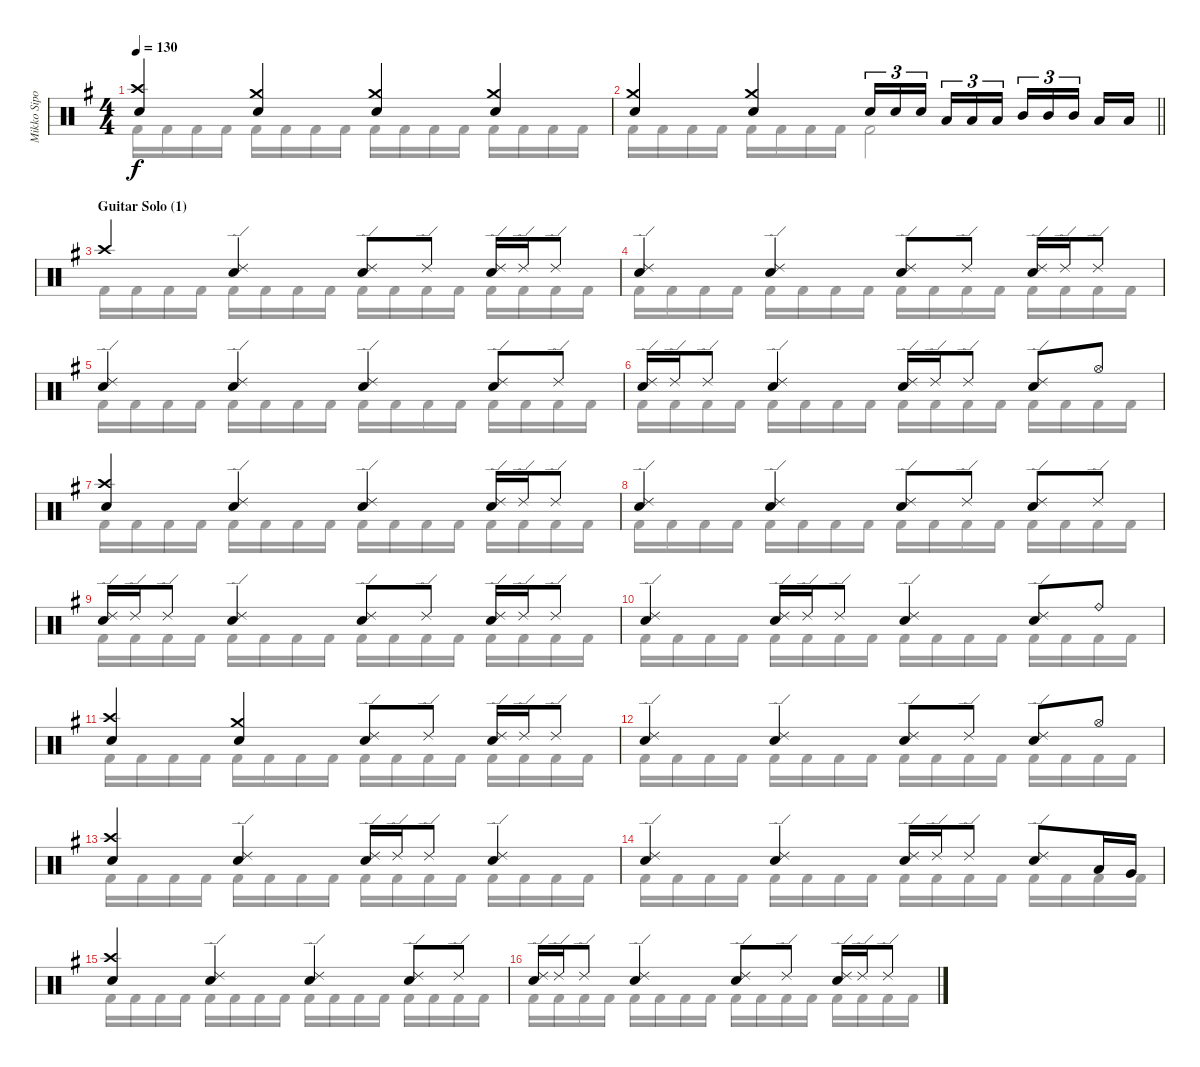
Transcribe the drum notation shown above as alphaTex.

\track ("Mikko Sipola (drums)" "Mikko Sipo") {instrument percussion}
\staff {score}
\articulation defaults
\voice
\ts (4 4)
\tempo 130
\clef neutral
\ks eminor
("Crash high (hit)" "Electric Snare (hit)").4{dy f} ("Crash medium (hit)" "Electric Snare (hit)").4 ("Crash medium (hit)" "Electric Snare (hit)").4 ("Crash medium (hit)" "Electric Snare (hit)").4 |
\barLineRight lightlight
("Crash medium (hit)" "Electric Snare (hit)").4 ("Crash medium (hit)" "Electric Snare (hit)").4 "Electric Snare (hit)".16{tu (3 2)} "Electric Snare (hit)".16{tu (3 2)} "Electric Snare (hit)".16{tu (3 2) beam splitsecondary} "Low Tom (hit)".16{tu (3 2)} "Low Tom (hit)".16{tu (3 2)} "Low Tom (hit)".16{tu (3 2)} "Mid Tom (hit)".16{tu (3 2)} "Mid Tom (hit)".16{tu (3 2)} "Mid Tom (hit)".16{tu (3 2) beam splitsecondary} "Low Tom (hit)".16 "Low Tom (hit)".16 |
\section ("" "Guitar Solo (1)")
"Crash high (hit)".4 ("Ride (edge) 2" "Electric Snare (hit)").4 ("Ride (edge) 2" "Electric Snare (hit)").8 "Ride (edge) 2".8 ("Ride (edge) 2" "Electric Snare (hit)").16 "Ride (edge) 2".16 "Ride (edge) 2".8 |
("Ride (edge) 2" "Electric Snare (hit)").4 ("Ride (edge) 2" "Electric Snare (hit)").4 ("Ride (edge) 2" "Electric Snare (hit)").8 "Ride (edge) 2".8 ("Ride (edge) 2" "Electric Snare (hit)").16 "Ride (edge) 2".16 "Ride (edge) 2".8 |
("Ride (edge) 2" "Electric Snare (hit)").4 ("Ride (edge) 2" "Electric Snare (hit)").4 ("Ride (edge) 2" "Electric Snare (hit)").4 ("Ride (edge) 2" "Electric Snare (hit)").8 "Ride (edge) 2".8 |
("Ride (edge) 2" "Electric Snare (hit)").16 "Ride (edge) 2".16 "Ride (edge) 2".8 ("Ride (edge) 2" "Electric Snare (hit)").4 ("Ride (edge) 2" "Electric Snare (hit)").16 "Ride (edge) 2".16 "Ride (edge) 2".8 ("Ride (edge) 2" "Electric Snare (hit)").8 "Hi-Hat (open)".8 |
("Crash high (hit)" "Electric Snare (hit)").4 ("Ride (edge) 2" "Electric Snare (hit)").4 ("Ride (edge) 2" "Electric Snare (hit)").4 ("Ride (edge) 2" "Electric Snare (hit)").16 "Ride (edge) 2".16 "Ride (edge) 2".8 |
("Ride (edge) 2" "Electric Snare (hit)").4 ("Ride (edge) 2" "Electric Snare (hit)").4 ("Ride (edge) 2" "Electric Snare (hit)").8 "Ride (edge) 2".8 ("Ride (edge) 2" "Electric Snare (hit)").8 "Ride (edge) 2".8 |
("Ride (edge) 2" "Electric Snare (hit)").16 "Ride (edge) 2".16 "Ride (edge) 2".8 ("Ride (edge) 2" "Electric Snare (hit)").4 ("Ride (edge) 2" "Electric Snare (hit)").8 "Ride (edge) 2".8 ("Ride (edge) 2" "Electric Snare (hit)").16 "Ride (edge) 2".16 "Ride (edge) 2".8 |
("Ride (edge) 2" "Electric Snare (hit)").4 ("Ride (edge) 2" "Electric Snare (hit)").16 "Ride (edge) 2".16 "Ride (edge) 2".8 ("Ride (edge) 2" "Electric Snare (hit)").4 ("Ride (edge) 2" "Electric Snare (hit)").8 "Ride (bell)".8 |
("Crash high (hit)" "Electric Snare (hit)").4 ("Crash medium (hit)" "Electric Snare (hit)").4 ("Ride (edge) 2" "Electric Snare (hit)").8 "Ride (edge) 2".8 ("Ride (edge) 2" "Electric Snare (hit)").16 "Ride (edge) 2".16 "Ride (edge) 2".8 |
("Ride (edge) 2" "Electric Snare (hit)").4 ("Ride (edge) 2" "Electric Snare (hit)").4 ("Ride (edge) 2" "Electric Snare (hit)").8 "Ride (edge) 2".8 ("Ride (edge) 2" "Electric Snare (hit)").8 "Hi-Hat (open)".8 |
("Crash high (hit)" "Electric Snare (hit)").4 ("Ride (edge) 2" "Electric Snare (hit)").4 ("Ride (edge) 2" "Electric Snare (hit)").16 "Ride (edge) 2".16 "Ride (edge) 2".8 ("Ride (edge) 2" "Electric Snare (hit)").4 |
("Ride (edge) 2" "Electric Snare (hit)").4 ("Ride (edge) 2" "Electric Snare (hit)").4 ("Ride (edge) 2" "Electric Snare (hit)").16 "Ride (edge) 2".16 "Ride (edge) 2".8 ("Ride (edge) 2" "Electric Snare (hit)").8 "Low Tom (hit)".16 "Very Low Tom (hit)".16 |
("Crash high (hit)" "Electric Snare (hit)").4 ("Ride (edge) 2" "Electric Snare (hit)").4 ("Ride (edge) 2" "Electric Snare (hit)").4 ("Ride (edge) 2" "Electric Snare (hit)").8 "Ride (edge) 2".8 |
("Ride (edge) 2" "Electric Snare (hit)").16 "Ride (edge) 2".16 "Ride (edge) 2".8 ("Ride (edge) 2" "Electric Snare (hit)").4 ("Ride (edge) 2" "Electric Snare (hit)").8 "Ride (edge) 2".8 ("Ride (edge) 2" "Electric Snare (hit)").16 "Ride (edge) 2".16 "Ride (edge) 2".8
\voice
\clef neutral
\ottava regular
\simile none
\ks eminor "Kick (hit) 2".16{dy f} "Kick (hit) 2".16 "Kick (hit) 2".16 "Kick (hit) 2".16 "Kick (hit) 2".16 "Kick (hit) 2".16 "Kick (hit) 2".16 "Kick (hit) 2".16 "Kick (hit) 2".16 "Kick (hit) 2".16 "Kick (hit) 2".16 "Kick (hit) 2".16 "Kick (hit) 2".16 "Kick (hit) 2".16 "Kick (hit) 2".16 "Kick (hit) 2".16
|
\barLineRight lightlight "Kick (hit) 2".16 "Kick (hit) 2".16 "Kick (hit) 2".16 "Kick (hit) 2".16 "Kick (hit) 2".16 "Kick (hit) 2".16 "Kick (hit) 2".16 "Kick (hit) 2".16 "Kick (hit) 2".2
|
"Kick (hit) 2".16 "Kick (hit) 2".16 "Kick (hit) 2".16 "Kick (hit) 2".16 "Kick (hit) 2".16 "Kick (hit) 2".16 "Kick (hit) 2".16 "Kick (hit) 2".16 "Kick (hit) 2".16 "Kick (hit) 2".16 "Kick (hit) 2".16 "Kick (hit) 2".16 "Kick (hit) 2".16 "Kick (hit) 2".16 "Kick (hit) 2".16 "Kick (hit) 2".16 |
"Kick (hit) 2".16 "Kick (hit) 2".16 "Kick (hit) 2".16 "Kick (hit) 2".16 "Kick (hit) 2".16 "Kick (hit) 2".16 "Kick (hit) 2".16 "Kick (hit) 2".16 "Kick (hit) 2".16 "Kick (hit) 2".16 "Kick (hit) 2".16 "Kick (hit) 2".16 "Kick (hit) 2".16 "Kick (hit) 2".16 "Kick (hit) 2".16 "Kick (hit) 2".16 |
"Kick (hit) 2".16 "Kick (hit) 2".16 "Kick (hit) 2".16 "Kick (hit) 2".16 "Kick (hit) 2".16 "Kick (hit) 2".16 "Kick (hit) 2".16 "Kick (hit) 2".16 "Kick (hit) 2".16 "Kick (hit) 2".16 "Kick (hit) 2".16 "Kick (hit) 2".16 "Kick (hit) 2".16 "Kick (hit) 2".16 "Kick (hit) 2".16 "Kick (hit) 2".16 |
"Kick (hit) 2".16 "Kick (hit) 2".16 "Kick (hit) 2".16 "Kick (hit) 2".16 "Kick (hit) 2".16 "Kick (hit) 2".16 "Kick (hit) 2".16 "Kick (hit) 2".16 "Kick (hit) 2".16 "Kick (hit) 2".16 "Kick (hit) 2".16 "Kick (hit) 2".16 "Kick (hit) 2".16 "Kick (hit) 2".16 "Kick (hit) 2".16 "Kick (hit) 2".16 |
"Kick (hit) 2".16 "Kick (hit) 2".16 "Kick (hit) 2".16 "Kick (hit) 2".16 "Kick (hit) 2".16 "Kick (hit) 2".16 "Kick (hit) 2".16 "Kick (hit) 2".16 "Kick (hit) 2".16 "Kick (hit) 2".16 "Kick (hit) 2".16 "Kick (hit) 2".16 "Kick (hit) 2".16 "Kick (hit) 2".16 "Kick (hit) 2".16 "Kick (hit) 2".16 |
"Kick (hit) 2".16 "Kick (hit) 2".16 "Kick (hit) 2".16 "Kick (hit) 2".16 "Kick (hit) 2".16 "Kick (hit) 2".16 "Kick (hit) 2".16 "Kick (hit) 2".16 "Kick (hit) 2".16 "Kick (hit) 2".16 "Kick (hit) 2".16 "Kick (hit) 2".16 "Kick (hit) 2".16 "Kick (hit) 2".16 "Kick (hit) 2".16 "Kick (hit) 2".16 |
"Kick (hit) 2".16 "Kick (hit) 2".16 "Kick (hit) 2".16 "Kick (hit) 2".16 "Kick (hit) 2".16 "Kick (hit) 2".16 "Kick (hit) 2".16 "Kick (hit) 2".16 "Kick (hit) 2".16 "Kick (hit) 2".16 "Kick (hit) 2".16 "Kick (hit) 2".16 "Kick (hit) 2".16 "Kick (hit) 2".16 "Kick (hit) 2".16 "Kick (hit) 2".16 |
"Kick (hit) 2".16 "Kick (hit) 2".16 "Kick (hit) 2".16 "Kick (hit) 2".16 "Kick (hit) 2".16 "Kick (hit) 2".16 "Kick (hit) 2".16 "Kick (hit) 2".16 "Kick (hit) 2".16 "Kick (hit) 2".16 "Kick (hit) 2".16 "Kick (hit) 2".16 "Kick (hit) 2".16 "Kick (hit) 2".16 "Kick (hit) 2".16 "Kick (hit) 2".16 |
"Kick (hit) 2".16 "Kick (hit) 2".16 "Kick (hit) 2".16 "Kick (hit) 2".16 "Kick (hit) 2".16 "Kick (hit) 2".16 "Kick (hit) 2".16 "Kick (hit) 2".16 "Kick (hit) 2".16 "Kick (hit) 2".16 "Kick (hit) 2".16 "Kick (hit) 2".16 "Kick (hit) 2".16 "Kick (hit) 2".16 "Kick (hit) 2".16 "Kick (hit) 2".16 |
"Kick (hit) 2".16 "Kick (hit) 2".16 "Kick (hit) 2".16 "Kick (hit) 2".16 "Kick (hit) 2".16 "Kick (hit) 2".16 "Kick (hit) 2".16 "Kick (hit) 2".16 "Kick (hit) 2".16 "Kick (hit) 2".16 "Kick (hit) 2".16 "Kick (hit) 2".16 "Kick (hit) 2".16 "Kick (hit) 2".16 "Kick (hit) 2".16 "Kick (hit) 2".16 |
"Kick (hit) 2".16 "Kick (hit) 2".16 "Kick (hit) 2".16 "Kick (hit) 2".16 "Kick (hit) 2".16 "Kick (hit) 2".16 "Kick (hit) 2".16 "Kick (hit) 2".16 "Kick (hit) 2".16 "Kick (hit) 2".16 "Kick (hit) 2".16 "Kick (hit) 2".16 "Kick (hit) 2".16 "Kick (hit) 2".16 "Kick (hit) 2".16 "Kick (hit) 2".16 |
"Kick (hit) 2".16 "Kick (hit) 2".16 "Kick (hit) 2".16 "Kick (hit) 2".16 "Kick (hit) 2".16 "Kick (hit) 2".16 "Kick (hit) 2".16 "Kick (hit) 2".16 "Kick (hit) 2".16 "Kick (hit) 2".16 "Kick (hit) 2".16 "Kick (hit) 2".16 "Kick (hit) 2".16 "Kick (hit) 2".16 "Kick (hit) 2".16 "Kick (hit) 2".16 |
"Kick (hit) 2".16 "Kick (hit) 2".16 "Kick (hit) 2".16 "Kick (hit) 2".16 "Kick (hit) 2".16 "Kick (hit) 2".16 "Kick (hit) 2".16 "Kick (hit) 2".16 "Kick (hit) 2".16 "Kick (hit) 2".16 "Kick (hit) 2".16 "Kick (hit) 2".16 "Kick (hit) 2".16 "Kick (hit) 2".16 "Kick (hit) 2".16 "Kick (hit) 2".16 |
"Kick (hit) 2".16 "Kick (hit) 2".16 "Kick (hit) 2".16 "Kick (hit) 2".16 "Kick (hit) 2".16 "Kick (hit) 2".16 "Kick (hit) 2".16 "Kick (hit) 2".16 "Kick (hit) 2".16 "Kick (hit) 2".16 "Kick (hit) 2".16 "Kick (hit) 2".16 "Kick (hit) 2".16 "Kick (hit) 2".16 "Kick (hit) 2".16 "Kick (hit) 2".16
